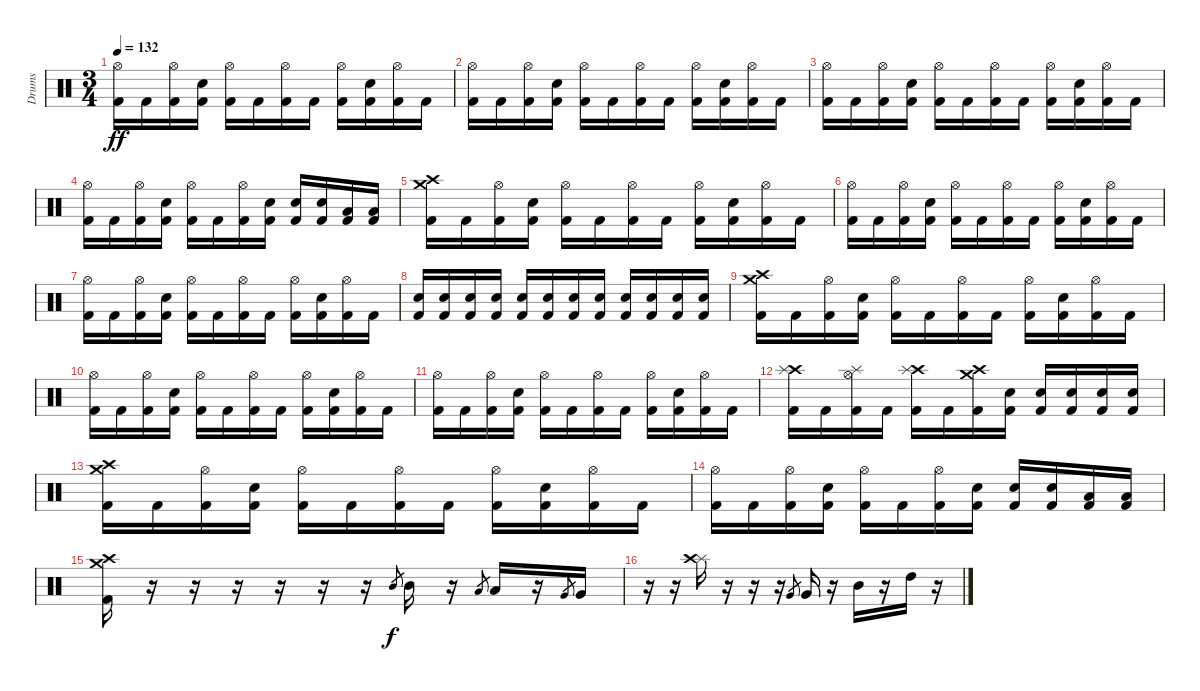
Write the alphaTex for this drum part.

\track ("Drums" "Drums") {instrument percussion}
\staff {score}
\articulation defaults
\ts (3 4)
\tempo 132
\clef neutral
\ks c
("Hi-Hat (open)" "Kick (hit) 2").16{dy ff} "Kick (hit) 2".16 ("Hi-Hat (open)" "Kick (hit) 2").16 ("Snare (hit) 2" "Kick (hit) 2").16 ("Hi-Hat (open)" "Kick (hit) 2").16 "Kick (hit) 2".16 ("Hi-Hat (open)" "Kick (hit) 2").16 "Kick (hit) 2".16 ("Hi-Hat (open)" "Kick (hit) 2").16 ("Snare (hit) 2" "Kick (hit) 2").16 ("Hi-Hat (open)" "Kick (hit) 2").16 "Kick (hit) 2".16 |
("Hi-Hat (open)" "Kick (hit) 2").16 "Kick (hit) 2".16 ("Hi-Hat (open)" "Kick (hit) 2").16 ("Snare (hit) 2" "Kick (hit) 2").16 ("Hi-Hat (open)" "Kick (hit) 2").16 "Kick (hit) 2".16 ("Hi-Hat (open)" "Kick (hit) 2").16 "Kick (hit) 2".16 ("Hi-Hat (open)" "Kick (hit) 2").16 ("Snare (hit) 2" "Kick (hit) 2").16 ("Hi-Hat (open)" "Kick (hit) 2").16 "Kick (hit) 2".16 |
("Hi-Hat (open)" "Kick (hit) 2").16 "Kick (hit) 2".16 ("Hi-Hat (open)" "Kick (hit) 2").16 ("Snare (hit) 2" "Kick (hit) 2").16 ("Hi-Hat (open)" "Kick (hit) 2").16 "Kick (hit) 2".16 ("Hi-Hat (open)" "Kick (hit) 2").16 "Kick (hit) 2".16 ("Hi-Hat (open)" "Kick (hit) 2").16 ("Snare (hit) 2" "Kick (hit) 2").16 ("Hi-Hat (open)" "Kick (hit) 2").16 "Kick (hit) 2".16 |
("Hi-Hat (open)" "Kick (hit) 2").16 "Kick (hit) 2".16 ("Hi-Hat (open)" "Kick (hit) 2").16 ("Snare (hit) 2" "Kick (hit) 2").16 ("Hi-Hat (open)" "Kick (hit) 2").16 "Kick (hit) 2".16 ("Hi-Hat (open)" "Kick (hit) 2").16 ("Snare (hit) 2" "Kick (hit) 2").16 ("Snare (hit) 2" "Kick (hit) 2").16 ("Snare (hit) 2" "Kick (hit) 2").16 ("Low Tom (hit)" "Kick (hit) 2").16 ("Low Tom (hit)" "Kick (hit) 2").16 |
("Crash medium (hit)" "Crash high (hit)" "Kick (hit) 2").16 "Kick (hit) 2".16 ("Hi-Hat (open)" "Kick (hit) 2").16 ("Snare (hit) 2" "Kick (hit) 2").16 ("Hi-Hat (open)" "Kick (hit) 2").16 "Kick (hit) 2".16 ("Hi-Hat (open)" "Kick (hit) 2").16 "Kick (hit) 2".16 ("Hi-Hat (open)" "Kick (hit) 2").16 ("Snare (hit) 2" "Kick (hit) 2").16 ("Hi-Hat (open)" "Kick (hit) 2").16 "Kick (hit) 2".16 |
("Hi-Hat (open)" "Kick (hit) 2").16 "Kick (hit) 2".16 ("Hi-Hat (open)" "Kick (hit) 2").16 ("Snare (hit) 2" "Kick (hit) 2").16 ("Hi-Hat (open)" "Kick (hit) 2").16 "Kick (hit) 2".16 ("Hi-Hat (open)" "Kick (hit) 2").16 "Kick (hit) 2".16 ("Hi-Hat (open)" "Kick (hit) 2").16 ("Snare (hit) 2" "Kick (hit) 2").16 ("Hi-Hat (open)" "Kick (hit) 2").16 "Kick (hit) 2".16 |
("Hi-Hat (open)" "Kick (hit) 2").16 "Kick (hit) 2".16 ("Hi-Hat (open)" "Kick (hit) 2").16 ("Snare (hit) 2" "Kick (hit) 2").16 ("Hi-Hat (open)" "Kick (hit) 2").16 "Kick (hit) 2".16 ("Hi-Hat (open)" "Kick (hit) 2").16 "Kick (hit) 2".16 ("Hi-Hat (open)" "Kick (hit) 2").16 ("Snare (hit) 2" "Kick (hit) 2").16 ("Hi-Hat (open)" "Kick (hit) 2").16 "Kick (hit) 2".16 |
("Snare (hit) 2" "Kick (hit) 2").16 ("Snare (hit) 2" "Kick (hit) 2").16 ("Snare (hit) 2" "Kick (hit) 2").16 ("Snare (hit) 2" "Kick (hit) 2").16 ("Snare (hit) 2" "Kick (hit) 2").16 ("Snare (hit) 2" "Kick (hit) 2").16 ("Snare (hit) 2" "Kick (hit) 2").16 ("Snare (hit) 2" "Kick (hit) 2").16 ("Snare (hit) 2" "Kick (hit) 2").16 ("Snare (hit) 2" "Kick (hit) 2").16 ("Snare (hit) 2" "Kick (hit) 2").16 ("Snare (hit) 2" "Kick (hit) 2").16 |
("Crash medium (hit)" "Crash high (hit)" "Kick (hit) 2").16 "Kick (hit) 2".16 ("Hi-Hat (open)" "Kick (hit) 2").16 ("Snare (hit) 2" "Kick (hit) 2").16 ("Hi-Hat (open)" "Kick (hit) 2").16 "Kick (hit) 2".16 ("Hi-Hat (open)" "Kick (hit) 2").16 "Kick (hit) 2".16 ("Hi-Hat (open)" "Kick (hit) 2").16 ("Snare (hit) 2" "Kick (hit) 2").16 ("Hi-Hat (open)" "Kick (hit) 2").16 "Kick (hit) 2".16 |
("Hi-Hat (open)" "Kick (hit) 2").16 "Kick (hit) 2".16 ("Hi-Hat (open)" "Kick (hit) 2").16 ("Snare (hit) 2" "Kick (hit) 2").16 ("Hi-Hat (open)" "Kick (hit) 2").16 "Kick (hit) 2".16 ("Hi-Hat (open)" "Kick (hit) 2").16 "Kick (hit) 2".16 ("Hi-Hat (open)" "Kick (hit) 2").16 ("Snare (hit) 2" "Kick (hit) 2").16 ("Hi-Hat (open)" "Kick (hit) 2").16 "Kick (hit) 2".16 |
("Hi-Hat (open)" "Kick (hit) 2").16 "Kick (hit) 2".16 ("Hi-Hat (open)" "Kick (hit) 2").16 ("Snare (hit) 2" "Kick (hit) 2").16 ("Hi-Hat (open)" "Kick (hit) 2").16 "Kick (hit) 2".16 ("Hi-Hat (open)" "Kick (hit) 2").16 "Kick (hit) 2".16 ("Hi-Hat (open)" "Kick (hit) 2").16 ("Snare (hit) 2" "Kick (hit) 2").16 ("Hi-Hat (open)" "Kick (hit) 2").16 "Kick (hit) 2".16 |
("Crash high (hit)" "Splash (hit)" "Kick (hit) 2").16 "Kick (hit) 2".16 ("Hi-Hat (open)" "Splash (hit)" "Kick (hit) 2").16 "Kick (hit) 2".16 ("Crash high (hit)" "Splash (hit)" "Kick (hit) 2").16 "Kick (hit) 2".16 ("Crash high (hit)" "Crash medium (hit)" "Kick (hit) 2").16 ("Snare (hit) 2" "Kick (hit) 2").16 ("Snare (hit) 2" "Kick (hit) 2").16 ("Snare (hit) 2" "Kick (hit) 2").16 ("Snare (hit) 2" "Kick (hit) 2").16 ("Snare (hit) 2" "Kick (hit) 2").16 |
("Crash high (hit)" "Crash medium (hit)" "Kick (hit) 2").16 "Kick (hit) 2".16 ("Hi-Hat (open)" "Kick (hit) 2").16 ("Snare (hit) 2" "Kick (hit) 2").16 ("Hi-Hat (open)" "Kick (hit) 2").16 "Kick (hit) 2".16 ("Hi-Hat (open)" "Kick (hit) 2").16 "Kick (hit) 2".16 ("Hi-Hat (open)" "Kick (hit) 2").16 ("Snare (hit) 2" "Kick (hit) 2").16 ("Hi-Hat (open)" "Kick (hit) 2").16 "Kick (hit) 2".16 |
("Hi-Hat (open)" "Kick (hit) 2").16 "Kick (hit) 2".16 ("Hi-Hat (open)" "Kick (hit) 2").16 ("Snare (hit) 2" "Kick (hit) 2").16 ("Hi-Hat (open)" "Kick (hit) 2").16 "Kick (hit) 2".16 ("Hi-Hat (open)" "Kick (hit) 2").16 ("Snare (hit) 2" "Kick (hit) 2").16 ("Snare (hit) 2" "Kick (hit) 2").16 ("Snare (hit) 2" "Kick (hit) 2").16 ("Low Tom (hit)" "Kick (hit) 2").16 ("Low Tom (hit)" "Kick (hit) 2").16 |
("Crash high (hit)" "Crash medium (hit)" "Kick (hit) 2").16 r.16 r.16 r.16 r.16 r.16 r.16 "Mid Tom (hit)".8{gr dy f} "Mid Tom (hit)".16 r.16 "Low Tom (hit)".8{gr} "Low Tom (hit)".16 r.16 "Very Low Tom (hit)".8{gr} "Very Low Tom (hit)".16 |
r.16 r.16 ("Splash (hit)" "Crash high (hit)").16 r.16 r.16 r.16 "Very Low Tom (hit)".8{gr} "Very Low Tom (hit)".16 r.16 "Mid Tom (hit)".16 r.16 "High Tom (hit)".16 r.16
